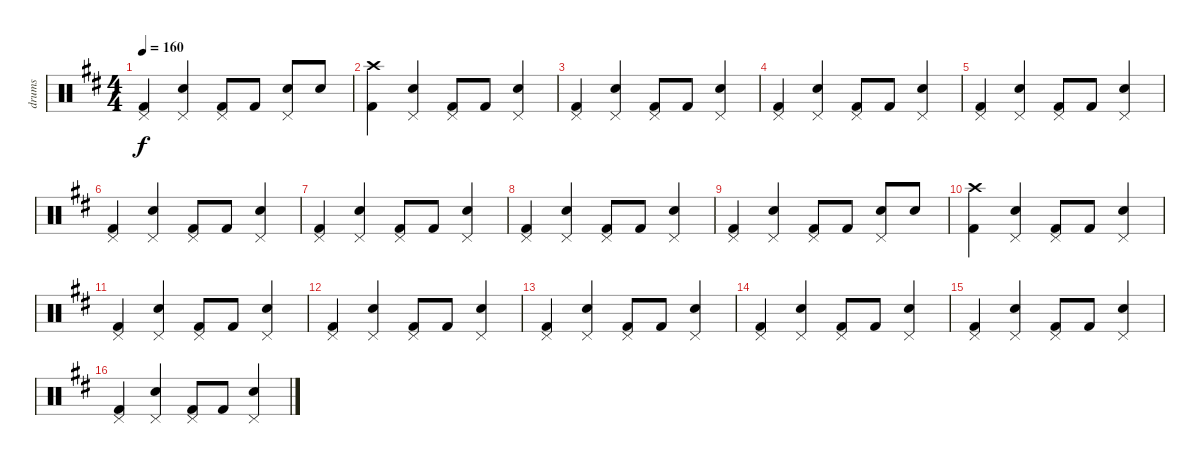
\track ("drums" "drums") {instrument percussion}
\staff {score}
\articulation defaults
\ts (4 4)
\tempo 160
\clef neutral
\ks bminor
("Pedal Hi-Hat (hit)" "Kick (hit) 2").4{dy f} ("Pedal Hi-Hat (hit)" "Snare (hit) 2").4 ("Pedal Hi-Hat (hit)" "Kick (hit) 2").8 "Kick (hit) 2".8 ("Pedal Hi-Hat (hit)" "Snare (hit) 2").8 "Snare (hit) 2".8 |
("Crash high (hit)" "Kick (hit) 2").4 ("Pedal Hi-Hat (hit)" "Snare (hit) 2").4 ("Pedal Hi-Hat (hit)" "Kick (hit) 2").8 "Kick (hit) 2".8 ("Pedal Hi-Hat (hit)" "Snare (hit) 2").4 |
("Pedal Hi-Hat (hit)" "Kick (hit) 2").4 ("Pedal Hi-Hat (hit)" "Snare (hit) 2").4 ("Pedal Hi-Hat (hit)" "Kick (hit) 2").8 "Kick (hit) 2".8 ("Pedal Hi-Hat (hit)" "Snare (hit) 2").4 |
("Pedal Hi-Hat (hit)" "Kick (hit) 2").4 ("Pedal Hi-Hat (hit)" "Snare (hit) 2").4 ("Pedal Hi-Hat (hit)" "Kick (hit) 2").8 "Kick (hit) 2".8 ("Pedal Hi-Hat (hit)" "Snare (hit) 2").4 |
("Pedal Hi-Hat (hit)" "Kick (hit) 2").4 ("Pedal Hi-Hat (hit)" "Snare (hit) 2").4 ("Pedal Hi-Hat (hit)" "Kick (hit) 2").8 "Kick (hit) 2".8 ("Pedal Hi-Hat (hit)" "Snare (hit) 2").4 |
("Pedal Hi-Hat (hit)" "Kick (hit) 2").4 ("Pedal Hi-Hat (hit)" "Snare (hit) 2").4 ("Pedal Hi-Hat (hit)" "Kick (hit) 2").8 "Kick (hit) 2".8 ("Pedal Hi-Hat (hit)" "Snare (hit) 2").4 |
("Pedal Hi-Hat (hit)" "Kick (hit) 2").4 ("Pedal Hi-Hat (hit)" "Snare (hit) 2").4 ("Pedal Hi-Hat (hit)" "Kick (hit) 2").8 "Kick (hit) 2".8 ("Pedal Hi-Hat (hit)" "Snare (hit) 2").4 |
("Pedal Hi-Hat (hit)" "Kick (hit) 2").4 ("Pedal Hi-Hat (hit)" "Snare (hit) 2").4 ("Pedal Hi-Hat (hit)" "Kick (hit) 2").8 "Kick (hit) 2".8 ("Pedal Hi-Hat (hit)" "Snare (hit) 2").4 |
("Pedal Hi-Hat (hit)" "Kick (hit) 2").4 ("Pedal Hi-Hat (hit)" "Snare (hit) 2").4 ("Pedal Hi-Hat (hit)" "Kick (hit) 2").8 "Kick (hit) 2".8 ("Pedal Hi-Hat (hit)" "Snare (hit) 2").8 "Snare (hit) 2".8 |
("Crash high (hit)" "Kick (hit) 2").4 ("Pedal Hi-Hat (hit)" "Snare (hit) 2").4 ("Pedal Hi-Hat (hit)" "Kick (hit) 2").8 "Kick (hit) 2".8 ("Pedal Hi-Hat (hit)" "Snare (hit) 2").4 |
("Pedal Hi-Hat (hit)" "Kick (hit) 2").4 ("Pedal Hi-Hat (hit)" "Snare (hit) 2").4 ("Pedal Hi-Hat (hit)" "Kick (hit) 2").8 "Kick (hit) 2".8 ("Pedal Hi-Hat (hit)" "Snare (hit) 2").4 |
("Pedal Hi-Hat (hit)" "Kick (hit) 2").4 ("Pedal Hi-Hat (hit)" "Snare (hit) 2").4 ("Pedal Hi-Hat (hit)" "Kick (hit) 2").8 "Kick (hit) 2".8 ("Pedal Hi-Hat (hit)" "Snare (hit) 2").4 |
("Pedal Hi-Hat (hit)" "Kick (hit) 2").4 ("Pedal Hi-Hat (hit)" "Snare (hit) 2").4 ("Pedal Hi-Hat (hit)" "Kick (hit) 2").8 "Kick (hit) 2".8 ("Pedal Hi-Hat (hit)" "Snare (hit) 2").4 |
("Pedal Hi-Hat (hit)" "Kick (hit) 2").4 ("Pedal Hi-Hat (hit)" "Snare (hit) 2").4 ("Pedal Hi-Hat (hit)" "Kick (hit) 2").8 "Kick (hit) 2".8 ("Pedal Hi-Hat (hit)" "Snare (hit) 2").4 |
("Pedal Hi-Hat (hit)" "Kick (hit) 2").4 ("Pedal Hi-Hat (hit)" "Snare (hit) 2").4 ("Pedal Hi-Hat (hit)" "Kick (hit) 2").8 "Kick (hit) 2".8 ("Pedal Hi-Hat (hit)" "Snare (hit) 2").4 |
("Pedal Hi-Hat (hit)" "Kick (hit) 2").4 ("Pedal Hi-Hat (hit)" "Snare (hit) 2").4 ("Pedal Hi-Hat (hit)" "Kick (hit) 2").8 "Kick (hit) 2".8 ("Pedal Hi-Hat (hit)" "Snare (hit) 2").4
